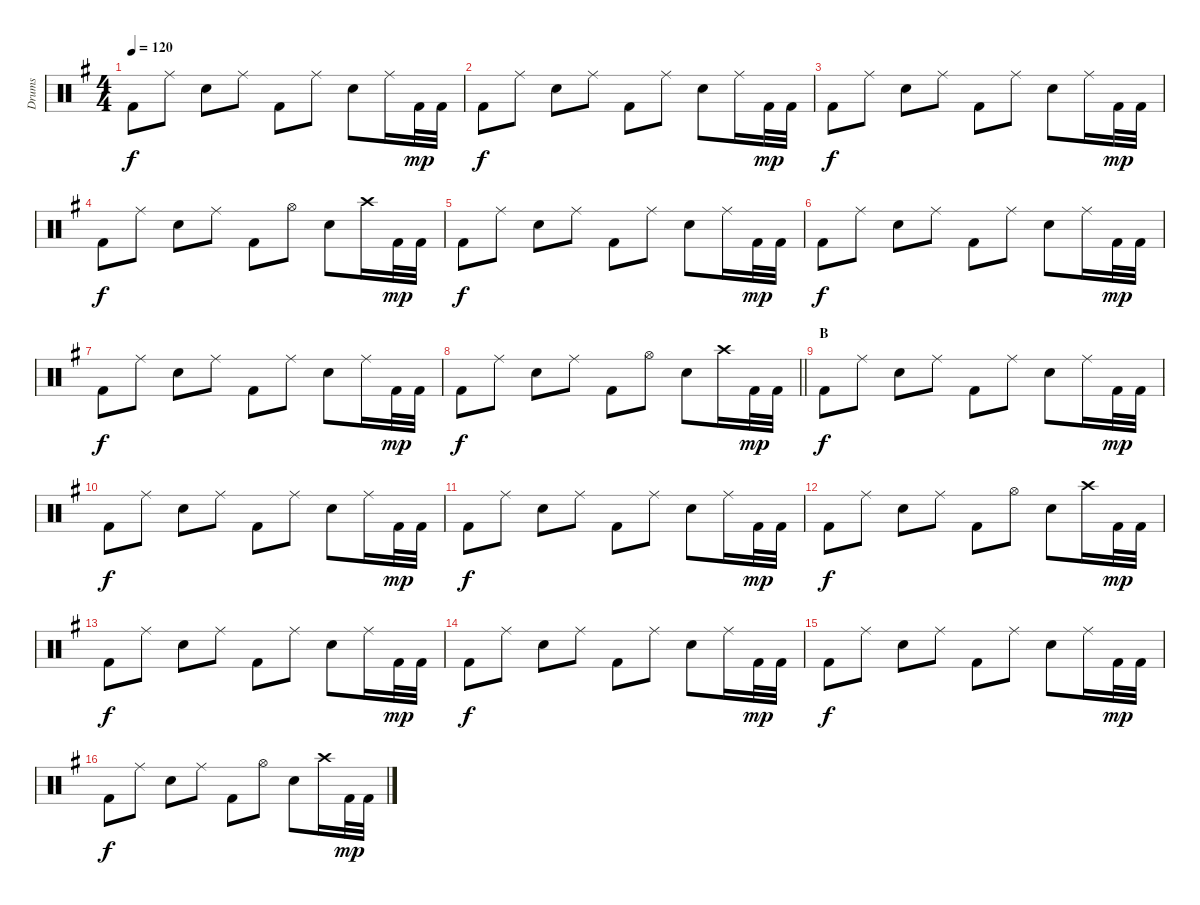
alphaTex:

\track ("Drums" "Drums") {instrument percussion}
\staff
\articulation defaults
\ts (4 4)
\tempo 120
\clef neutral
\ks g "Kick (hit) 2".8{dy f} "Ride (middle)".8 "Electric Snare (hit)".8 "Ride (middle)".8 "Kick (hit) 2".8 "Ride (middle)".8 "Electric Snare (hit)".8 "Ride (middle)".16 "Kick (hit) 2".32{dy mp} "Kick (hit) 2".32
|
"Kick (hit) 2".8{dy f} "Ride (middle)".8 "Electric Snare (hit)".8 "Ride (middle)".8 "Kick (hit) 2".8 "Ride (middle)".8 "Electric Snare (hit)".8 "Ride (middle)".16 "Kick (hit) 2".32{dy mp} "Kick (hit) 2".32 |
"Kick (hit) 2".8{dy f} "Ride (middle)".8 "Electric Snare (hit)".8 "Ride (middle)".8 "Kick (hit) 2".8 "Ride (middle)".8 "Electric Snare (hit)".8 "Ride (middle)".16 "Kick (hit) 2".32{dy mp} "Kick (hit) 2".32 |
"Kick (hit) 2".8{dy f} "Ride (middle)".8 "Electric Snare (hit)".8 "Ride (middle)".8 "Kick (hit) 2".8 "Hi-Hat (open)".8 "Electric Snare (hit)".8 "Crash high (hit)".16 "Kick (hit) 2".32{dy mp} "Kick (hit) 2".32 |
"Kick (hit) 2".8{dy f} "Ride (middle)".8 "Electric Snare (hit)".8 "Ride (middle)".8 "Kick (hit) 2".8 "Ride (middle)".8 "Electric Snare (hit)".8 "Ride (middle)".16 "Kick (hit) 2".32{dy mp} "Kick (hit) 2".32 |
"Kick (hit) 2".8{dy f} "Ride (middle)".8 "Electric Snare (hit)".8 "Ride (middle)".8 "Kick (hit) 2".8 "Ride (middle)".8 "Electric Snare (hit)".8 "Ride (middle)".16 "Kick (hit) 2".32{dy mp} "Kick (hit) 2".32 |
"Kick (hit) 2".8{dy f} "Ride (middle)".8 "Electric Snare (hit)".8 "Ride (middle)".8 "Kick (hit) 2".8 "Ride (middle)".8 "Electric Snare (hit)".8 "Ride (middle)".16 "Kick (hit) 2".32{dy mp} "Kick (hit) 2".32 |
\barLineRight lightlight "Kick (hit) 2".8{dy f} "Ride (middle)".8 "Electric Snare (hit)".8 "Ride (middle)".8 "Kick (hit) 2".8 "Hi-Hat (open)".8 "Electric Snare (hit)".8 "Crash high (hit)".16 "Kick (hit) 2".32{dy mp} "Kick (hit) 2".32
|
\section ("" "B")
"Kick (hit) 2".8{dy f} "Ride (middle)".8 "Electric Snare (hit)".8 "Ride (middle)".8 "Kick (hit) 2".8 "Ride (middle)".8 "Electric Snare (hit)".8 "Ride (middle)".16 "Kick (hit) 2".32{dy mp} "Kick (hit) 2".32 |
"Kick (hit) 2".8{dy f} "Ride (middle)".8 "Electric Snare (hit)".8 "Ride (middle)".8 "Kick (hit) 2".8 "Ride (middle)".8 "Electric Snare (hit)".8 "Ride (middle)".16 "Kick (hit) 2".32{dy mp} "Kick (hit) 2".32 |
"Kick (hit) 2".8{dy f} "Ride (middle)".8 "Electric Snare (hit)".8 "Ride (middle)".8 "Kick (hit) 2".8 "Ride (middle)".8 "Electric Snare (hit)".8 "Ride (middle)".16 "Kick (hit) 2".32{dy mp} "Kick (hit) 2".32 |
"Kick (hit) 2".8{dy f} "Ride (middle)".8 "Electric Snare (hit)".8 "Ride (middle)".8 "Kick (hit) 2".8 "Hi-Hat (open)".8 "Electric Snare (hit)".8 "Crash high (hit)".16 "Kick (hit) 2".32{dy mp} "Kick (hit) 2".32 |
"Kick (hit) 2".8{dy f} "Ride (middle)".8 "Electric Snare (hit)".8 "Ride (middle)".8 "Kick (hit) 2".8 "Ride (middle)".8 "Electric Snare (hit)".8 "Ride (middle)".16 "Kick (hit) 2".32{dy mp} "Kick (hit) 2".32 |
"Kick (hit) 2".8{dy f} "Ride (middle)".8 "Electric Snare (hit)".8 "Ride (middle)".8 "Kick (hit) 2".8 "Ride (middle)".8 "Electric Snare (hit)".8 "Ride (middle)".16 "Kick (hit) 2".32{dy mp} "Kick (hit) 2".32 |
"Kick (hit) 2".8{dy f} "Ride (middle)".8 "Electric Snare (hit)".8 "Ride (middle)".8 "Kick (hit) 2".8 "Ride (middle)".8 "Electric Snare (hit)".8 "Ride (middle)".16 "Kick (hit) 2".32{dy mp} "Kick (hit) 2".32 |
"Kick (hit) 2".8{dy f} "Ride (middle)".8 "Electric Snare (hit)".8 "Ride (middle)".8 "Kick (hit) 2".8 "Hi-Hat (open)".8 "Electric Snare (hit)".8 "Crash high (hit)".16 "Kick (hit) 2".32{dy mp} "Kick (hit) 2".32
